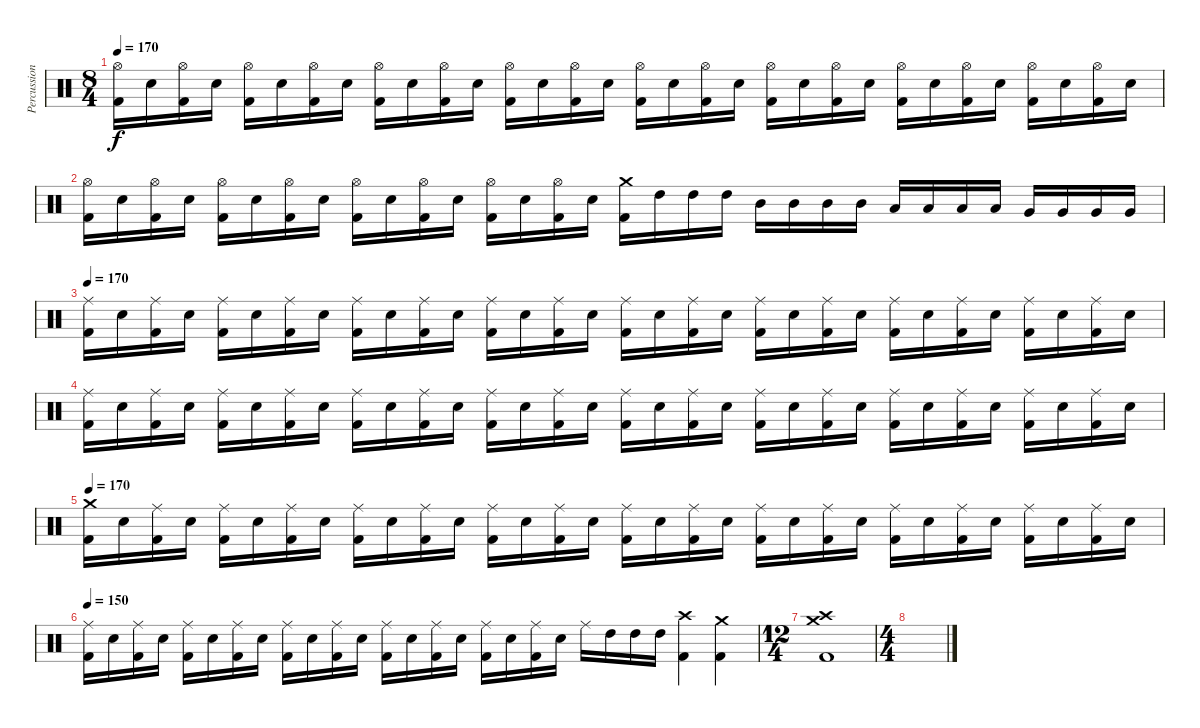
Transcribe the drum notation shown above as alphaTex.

\track ("Percussion" "Percussion") {instrument percussion}
\staff {score}
\articulation defaults
\ts (8 4)
\tempo 170
\clef neutral
\ks c
("Hi-Hat (open)" "Kick (hit) 2").16{dy f} "Electric Snare (hit)".16 ("Hi-Hat (open)" "Kick (hit) 2").16 "Electric Snare (hit)".16 ("Hi-Hat (open)" "Kick (hit) 2").16 "Electric Snare (hit)".16 ("Hi-Hat (open)" "Kick (hit) 2").16 "Electric Snare (hit)".16 ("Hi-Hat (open)" "Kick (hit) 2").16 "Electric Snare (hit)".16 ("Hi-Hat (open)" "Kick (hit) 2").16 "Electric Snare (hit)".16 ("Hi-Hat (open)" "Kick (hit) 2").16 "Electric Snare (hit)".16 ("Hi-Hat (open)" "Kick (hit) 2").16 "Electric Snare (hit)".16 ("Hi-Hat (open)" "Kick (hit) 2").16 "Electric Snare (hit)".16 ("Hi-Hat (open)" "Kick (hit) 2").16 "Electric Snare (hit)".16 ("Hi-Hat (open)" "Kick (hit) 2").16 "Electric Snare (hit)".16 ("Hi-Hat (open)" "Kick (hit) 2").16 "Electric Snare (hit)".16 ("Hi-Hat (open)" "Kick (hit) 2").16 "Electric Snare (hit)".16 ("Hi-Hat (open)" "Kick (hit) 2").16 "Electric Snare (hit)".16 ("Hi-Hat (open)" "Kick (hit) 2").16 "Electric Snare (hit)".16 ("Hi-Hat (open)" "Kick (hit) 2").16 "Electric Snare (hit)".16 |
("Hi-Hat (open)" "Kick (hit) 2").16 "Electric Snare (hit)".16 ("Hi-Hat (open)" "Kick (hit) 2").16 "Electric Snare (hit)".16 ("Hi-Hat (open)" "Kick (hit) 2").16 "Electric Snare (hit)".16 ("Hi-Hat (open)" "Kick (hit) 2").16 "Electric Snare (hit)".16 ("Hi-Hat (open)" "Kick (hit) 2").16 "Electric Snare (hit)".16 ("Hi-Hat (open)" "Kick (hit) 2").16 "Electric Snare (hit)".16 ("Hi-Hat (open)" "Kick (hit) 2").16 "Electric Snare (hit)".16 ("Hi-Hat (open)" "Kick (hit) 2").16 "Electric Snare (hit)".16 ("Crash medium (hit)" "Kick (hit) 2").16 "High Tom (hit)".16 "High Tom (hit)".16 "High Tom (hit)".16 "Mid Tom (hit)".16 "Mid Tom (hit)".16 "Mid Tom (hit)".16 "Mid Tom (hit)".16 "Low Tom (hit)".16 "Low Tom (hit)".16 "Low Tom (hit)".16 "Low Tom (hit)".16 "Very Low Tom (hit)".16 "Very Low Tom (hit)".16 "Very Low Tom (hit)".16 "Very Low Tom (hit)".16 |
\tempo 170
("Ride (middle)" "Kick (hit) 2").16 "Electric Snare (hit)".16 ("Ride (middle)" "Kick (hit) 2").16 "Electric Snare (hit)".16 ("Ride (middle)" "Kick (hit) 2").16 "Electric Snare (hit)".16 ("Ride (middle)" "Kick (hit) 2").16 "Electric Snare (hit)".16 ("Ride (middle)" "Kick (hit) 2").16 "Electric Snare (hit)".16 ("Ride (middle)" "Kick (hit) 2").16 "Electric Snare (hit)".16 ("Ride (middle)" "Kick (hit) 2").16 "Electric Snare (hit)".16 ("Ride (middle)" "Kick (hit) 2").16 "Electric Snare (hit)".16 ("Ride (middle)" "Kick (hit) 2").16 "Electric Snare (hit)".16 ("Ride (middle)" "Kick (hit) 2").16 "Electric Snare (hit)".16 ("Ride (middle)" "Kick (hit) 2").16 "Electric Snare (hit)".16 ("Ride (middle)" "Kick (hit) 2").16 "Electric Snare (hit)".16 ("Ride (middle)" "Kick (hit) 2").16 "Electric Snare (hit)".16 ("Ride (middle)" "Kick (hit) 2").16 "Electric Snare (hit)".16 ("Ride (middle)" "Kick (hit) 2").16 "Electric Snare (hit)".16 ("Ride (middle)" "Kick (hit) 2").16 "Electric Snare (hit)".16 |
("Ride (middle)" "Kick (hit) 2").16 "Electric Snare (hit)".16 ("Ride (middle)" "Kick (hit) 2").16 "Electric Snare (hit)".16 ("Ride (middle)" "Kick (hit) 2").16 "Electric Snare (hit)".16 ("Ride (middle)" "Kick (hit) 2").16 "Electric Snare (hit)".16 ("Ride (middle)" "Kick (hit) 2").16 "Electric Snare (hit)".16 ("Ride (middle)" "Kick (hit) 2").16 "Electric Snare (hit)".16 ("Ride (middle)" "Kick (hit) 2").16 "Electric Snare (hit)".16 ("Ride (middle)" "Kick (hit) 2").16 "Electric Snare (hit)".16 ("Ride (middle)" "Kick (hit) 2").16 "Electric Snare (hit)".16 ("Ride (middle)" "Kick (hit) 2").16 "Electric Snare (hit)".16 ("Ride (middle)" "Kick (hit) 2").16 "Electric Snare (hit)".16 ("Ride (middle)" "Kick (hit) 2").16 "Electric Snare (hit)".16 ("Ride (middle)" "Kick (hit) 2").16 "Electric Snare (hit)".16 ("Ride (middle)" "Kick (hit) 2").16 "Electric Snare (hit)".16 ("Ride (middle)" "Kick (hit) 2").16 "Electric Snare (hit)".16 ("Ride (middle)" "Kick (hit) 2").16 "Electric Snare (hit)".16 |
\tempo 170
("Crash medium (hit)" "Kick (hit) 2").16 "Electric Snare (hit)".16 ("Ride (middle)" "Kick (hit) 2").16 "Electric Snare (hit)".16 ("Ride (middle)" "Kick (hit) 2").16 "Electric Snare (hit)".16 ("Ride (middle)" "Kick (hit) 2").16 "Electric Snare (hit)".16 ("Ride (middle)" "Kick (hit) 2").16 "Electric Snare (hit)".16 ("Ride (middle)" "Kick (hit) 2").16 "Electric Snare (hit)".16 ("Ride (middle)" "Kick (hit) 2").16 "Electric Snare (hit)".16 ("Ride (middle)" "Kick (hit) 2").16 "Electric Snare (hit)".16 ("Ride (middle)" "Kick (hit) 2").16 "Electric Snare (hit)".16 ("Ride (middle)" "Kick (hit) 2").16 "Electric Snare (hit)".16 ("Ride (middle)" "Kick (hit) 2").16 "Electric Snare (hit)".16 ("Ride (middle)" "Kick (hit) 2").16 "Electric Snare (hit)".16 ("Ride (middle)" "Kick (hit) 2").16 "Electric Snare (hit)".16 ("Ride (middle)" "Kick (hit) 2").16 "Electric Snare (hit)".16 ("Ride (middle)" "Kick (hit) 2").16 "Electric Snare (hit)".16 ("Ride (middle)" "Kick (hit) 2").16 "Electric Snare (hit)".16 |
\tempo 150
("Ride (middle)" "Kick (hit) 2").16 "Electric Snare (hit)".16 ("Ride (middle)" "Kick (hit) 2").16 "Electric Snare (hit)".16 ("Ride (middle)" "Kick (hit) 2").16 "Electric Snare (hit)".16 ("Ride (middle)" "Kick (hit) 2").16 "Electric Snare (hit)".16 ("Ride (middle)" "Kick (hit) 2").16 "Electric Snare (hit)".16 ("Ride (middle)" "Kick (hit) 2").16 "Electric Snare (hit)".16 ("Ride (middle)" "Kick (hit) 2").16 "Electric Snare (hit)".16 ("Ride (middle)" "Kick (hit) 2").16 "Electric Snare (hit)".16 ("Ride (middle)" "Kick (hit) 2").16 "Electric Snare (hit)".16 ("Ride (middle)" "Kick (hit) 2").16 "Electric Snare (hit)".16 "Ride (middle)".16 "High Tom (hit)".16 "High Tom (hit)".16 "High Tom (hit)".16 ("Crash high (hit)" "Kick (hit) 2").4 ("Crash medium (hit)" "Kick (hit) 2").4 |
\ts (12 4)
("Crash medium (hit)" "Crash high (hit)" "Kick (hit) 2").1 |
\ts (4 4)
